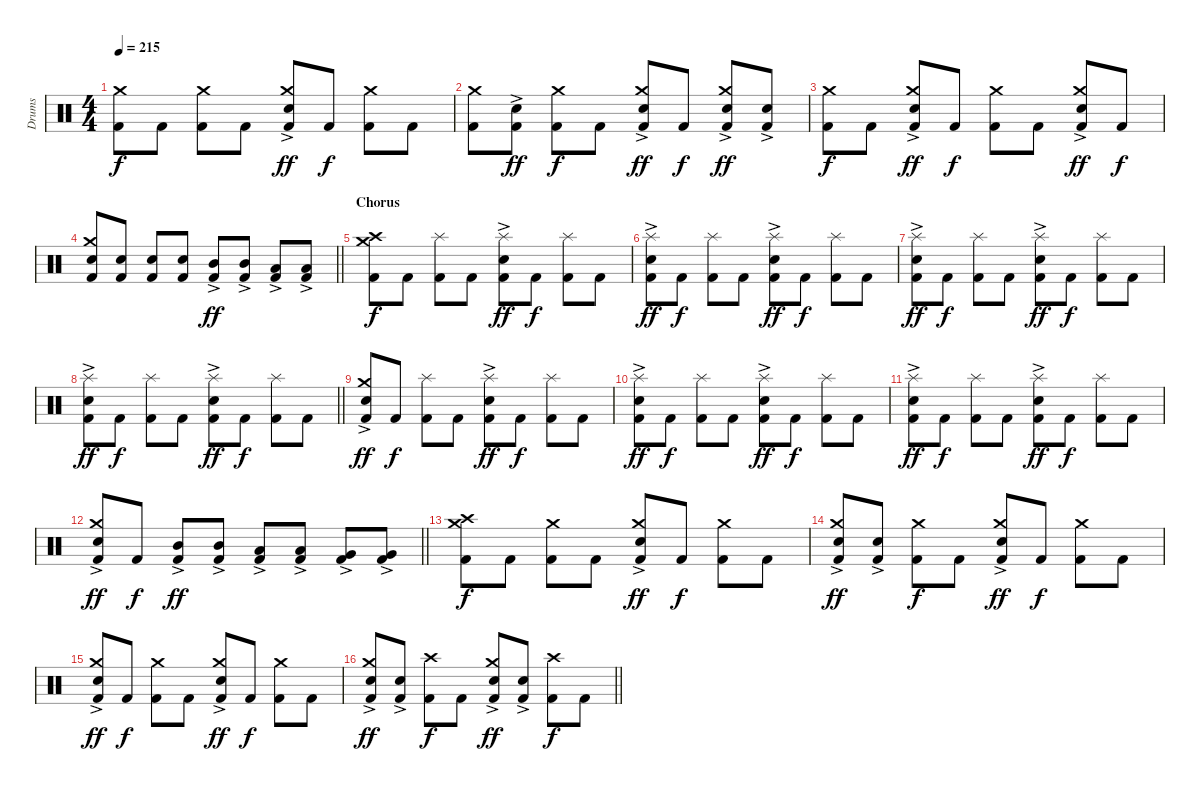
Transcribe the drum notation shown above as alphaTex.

\track ("Drums" "Drums") {instrument percussion}
\staff {score}
\articulation defaults
\ts (4 4)
\section ("" "")
\tempo 215
\clef neutral
\ks c
("Kick (hit) 2" "Crash medium (hit)").8{dy f} "Kick (hit) 2".8 ("Kick (hit) 2" "Crash medium (hit)").8 "Kick (hit) 2".8 ("Kick (hit) 2" "Snare (hit) 2"{ac} "Crash medium (hit)").8{dy ff} "Kick (hit) 2".8{dy f} ("Kick (hit) 2" "Crash medium (hit)").8 "Kick (hit) 2".8 |
("Kick (hit) 2" "Crash medium (hit)").8 ("Kick (hit) 2" "Snare (hit) 2"{ac}).8{dy ff} ("Kick (hit) 2" "Crash medium (hit)").8{dy f} "Kick (hit) 2".8 ("Kick (hit) 2" "Snare (hit) 2"{ac} "Crash medium (hit)").8{dy ff} "Kick (hit) 2".8{dy f} ("Kick (hit) 2" "Snare (hit) 2"{ac} "Crash medium (hit)").8{dy ff} ("Kick (hit) 2" "Snare (hit) 2"{ac}).8 |
("Kick (hit) 2" "Crash medium (hit)").8{dy f} "Kick (hit) 2".8 ("Kick (hit) 2" "Snare (hit) 2"{ac} "Crash medium (hit)").8{dy ff} "Kick (hit) 2".8{dy f} ("Kick (hit) 2" "Crash medium (hit)").8 "Kick (hit) 2".8 ("Kick (hit) 2" "Snare (hit) 2"{ac} "Crash medium (hit)").8{dy ff} "Kick (hit) 2".8{dy f} |
\barLineRight lightlight
("Kick (hit) 2" "Snare (hit) 2" "Crash medium (hit)").8 ("Kick (hit) 2" "Snare (hit) 2").8 ("Kick (hit) 2" "Snare (hit) 2").8 ("Kick (hit) 2" "Snare (hit) 2").8 ("Kick (hit) 2" "Mid Tom (hit)"{ac}).8{dy ff} ("Kick (hit) 2" "Mid Tom (hit)"{ac}).8 ("Kick (hit) 2" "Low Tom (hit)"{ac}).8 ("Kick (hit) 2" "Low Tom (hit)"{ac}).8 |
\section ("" "Chorus")
("Kick (hit) 2" "Crash medium (hit)" "Crash high (hit)").8{dy f} "Kick (hit) 2".8 ("Kick (hit) 2" "Splash (hit)").8 "Kick (hit) 2".8 ("Kick (hit) 2" "Snare (hit) 2"{ac} "Splash (hit)").8{dy ff} "Kick (hit) 2".8{dy f} ("Kick (hit) 2" "Splash (hit)").8 "Kick (hit) 2".8 |
("Kick (hit) 2" "Snare (hit) 2"{ac} "Splash (hit)").8{dy ff} "Kick (hit) 2".8{dy f} ("Kick (hit) 2" "Splash (hit)").8 "Kick (hit) 2".8 ("Kick (hit) 2" "Snare (hit) 2"{ac} "Splash (hit)").8{dy ff} "Kick (hit) 2".8{dy f} ("Kick (hit) 2" "Splash (hit)").8 "Kick (hit) 2".8 |
("Kick (hit) 2" "Snare (hit) 2"{ac} "Splash (hit)").8{dy ff} "Kick (hit) 2".8{dy f} ("Kick (hit) 2" "Splash (hit)").8 "Kick (hit) 2".8 ("Kick (hit) 2" "Snare (hit) 2"{ac} "Splash (hit)").8{dy ff} "Kick (hit) 2".8{dy f} ("Kick (hit) 2" "Splash (hit)").8 "Kick (hit) 2".8 |
\barLineRight lightlight
("Kick (hit) 2" "Snare (hit) 2"{ac} "Splash (hit)").8{dy ff} "Kick (hit) 2".8{dy f} ("Kick (hit) 2" "Splash (hit)").8 "Kick (hit) 2".8 ("Kick (hit) 2" "Snare (hit) 2"{ac} "Splash (hit)").8{dy ff} "Kick (hit) 2".8{dy f} ("Kick (hit) 2" "Splash (hit)").8 "Kick (hit) 2".8 |
\section ("" "")
("Kick (hit) 2" "Snare (hit) 2"{ac} "Crash medium (hit)").8{dy ff} "Kick (hit) 2".8{dy f} ("Kick (hit) 2" "Splash (hit)").8 "Kick (hit) 2".8 ("Kick (hit) 2" "Snare (hit) 2"{ac} "Splash (hit)").8{dy ff} "Kick (hit) 2".8{dy f} ("Kick (hit) 2" "Splash (hit)").8 "Kick (hit) 2".8 |
("Kick (hit) 2" "Snare (hit) 2"{ac} "Splash (hit)").8{dy ff} "Kick (hit) 2".8{dy f} ("Kick (hit) 2" "Splash (hit)").8 "Kick (hit) 2".8 ("Kick (hit) 2" "Snare (hit) 2"{ac} "Splash (hit)").8{dy ff} "Kick (hit) 2".8{dy f} ("Kick (hit) 2" "Splash (hit)").8 "Kick (hit) 2".8 |
("Kick (hit) 2" "Snare (hit) 2"{ac} "Splash (hit)").8{dy ff} "Kick (hit) 2".8{dy f} ("Kick (hit) 2" "Splash (hit)").8 "Kick (hit) 2".8 ("Kick (hit) 2" "Snare (hit) 2"{ac} "Splash (hit)").8{dy ff} "Kick (hit) 2".8{dy f} ("Kick (hit) 2" "Splash (hit)").8 "Kick (hit) 2".8 |
\barLineRight lightlight
("Kick (hit) 2" "Snare (hit) 2"{ac} "Crash medium (hit)").8{dy ff} "Kick (hit) 2".8{dy f} ("Kick (hit) 2" "Mid Tom (hit)"{ac}).8{dy ff} ("Kick (hit) 2" "Mid Tom (hit)"{ac}).8 ("Kick (hit) 2" "Low Tom (hit)"{ac}).8 ("Kick (hit) 2" "Low Tom (hit)"{ac}).8 ("Kick (hit) 2" "Very Low Tom (hit)"{ac}).8 ("Kick (hit) 2" "Very Low Tom (hit)"{ac}).8 |
\section ("" "")
("Kick (hit) 2" "Crash medium (hit)" "Crash high (hit)").8{dy f} "Kick (hit) 2".8 ("Kick (hit) 2" "Crash medium (hit)").8 "Kick (hit) 2".8 ("Kick (hit) 2" "Snare (hit) 2"{ac} "Crash medium (hit)").8{dy ff} "Kick (hit) 2".8{dy f} ("Kick (hit) 2" "Crash medium (hit)").8 "Kick (hit) 2".8 |
("Kick (hit) 2" "Snare (hit) 2"{ac} "Crash medium (hit)").8{dy ff} ("Kick (hit) 2" "Snare (hit) 2"{ac}).8 ("Kick (hit) 2" "Crash medium (hit)").8{dy f} "Kick (hit) 2".8 ("Kick (hit) 2" "Snare (hit) 2"{ac} "Crash medium (hit)").8{dy ff} "Kick (hit) 2".8{dy f} ("Kick (hit) 2" "Crash medium (hit)").8 "Kick (hit) 2".8 |
("Kick (hit) 2" "Snare (hit) 2"{ac} "Crash medium (hit)").8{dy ff} "Kick (hit) 2".8{dy f} ("Kick (hit) 2" "Crash medium (hit)").8 "Kick (hit) 2".8 ("Kick (hit) 2" "Snare (hit) 2"{ac} "Crash medium (hit)").8{dy ff} "Kick (hit) 2".8{dy f} ("Kick (hit) 2" "Crash medium (hit)").8 "Kick (hit) 2".8 |
\barLineRight lightlight
("Kick (hit) 2" "Snare (hit) 2"{ac} "Crash medium (hit)").8{dy ff} ("Kick (hit) 2" "Snare (hit) 2"{ac}).8 ("Kick (hit) 2" "Crash high (hit)").8{dy f} "Kick (hit) 2".8 ("Kick (hit) 2" "Snare (hit) 2"{ac} "Crash medium (hit)").8{dy ff} ("Kick (hit) 2" "Snare (hit) 2"{ac}).8 ("Kick (hit) 2" "Crash high (hit)").8{dy f} "Kick (hit) 2".8
